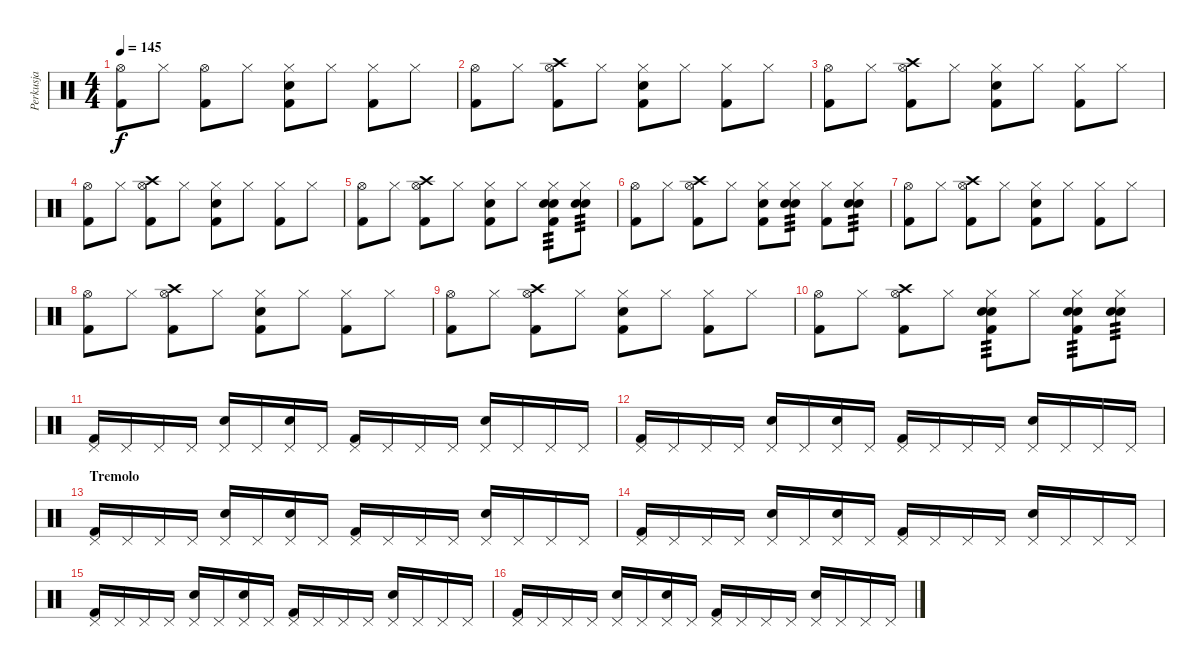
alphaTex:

\track ("Perkusja" "Perkusja") {instrument percussion}
\staff {score}
\articulation defaults
\ts (4 4)
\tempo 145
\clef neutral
\ks c
("Hi-Hat (open)" "Kick (hit) 2").8{dy f} "Hi-Hat (closed)".8 ("Hi-Hat (open)" "Kick (hit) 2").8 "Hi-Hat (closed)".8 ("Hi-Hat (closed)" "Electric Snare (hit)" "Kick (hit) 2").8 "Hi-Hat (closed)".8 ("Hi-Hat (closed)" "Kick (hit) 2").8 "Hi-Hat (closed)".8 |
("Hi-Hat (open)" "Kick (hit) 2").8 "Hi-Hat (closed)".8 ("Hi-Hat (open)" "Crash high (hit)" "Kick (hit) 2").8 "Hi-Hat (closed)".8 ("Hi-Hat (closed)" "Electric Snare (hit)" "Kick (hit) 2").8 "Hi-Hat (closed)".8 ("Hi-Hat (closed)" "Kick (hit) 2").8 "Hi-Hat (closed)".8 |
("Hi-Hat (open)" "Kick (hit) 2").8 "Hi-Hat (closed)".8 ("Hi-Hat (open)" "Crash high (hit)" "Kick (hit) 2").8 "Hi-Hat (closed)".8 ("Hi-Hat (closed)" "Electric Snare (hit)" "Kick (hit) 2").8 "Hi-Hat (closed)".8 ("Hi-Hat (closed)" "Kick (hit) 2").8 "Hi-Hat (closed)".8 |
("Hi-Hat (open)" "Kick (hit) 2").8 "Hi-Hat (closed)".8 ("Hi-Hat (open)" "Crash high (hit)" "Kick (hit) 2").8 "Hi-Hat (closed)".8 ("Hi-Hat (closed)" "Electric Snare (hit)" "Kick (hit) 2").8 "Hi-Hat (closed)".8 ("Hi-Hat (closed)" "Kick (hit) 2").8 "Hi-Hat (closed)".8 |
("Hi-Hat (open)" "Kick (hit) 2").8 "Hi-Hat (closed)".8 ("Hi-Hat (open)" "Crash high (hit)" "Kick (hit) 2").8 "Hi-Hat (closed)".8 ("Hi-Hat (closed)" "Electric Snare (hit)" "Kick (hit) 2").8 "Hi-Hat (closed)".8 ("Hi-Hat (closed)" "Electric Snare (hit)" "Electric Snare (hit)" "Kick (hit) 2").8{tp 3} ("Hi-Hat (closed)" "Electric Snare (hit)" "Electric Snare (hit)").8{tp 3} |
("Hi-Hat (open)" "Kick (hit) 2").8 "Hi-Hat (closed)".8 ("Hi-Hat (open)" "Crash high (hit)" "Kick (hit) 2").8 "Hi-Hat (closed)".8 ("Hi-Hat (closed)" "Electric Snare (hit)" "Kick (hit) 2").8 ("Hi-Hat (closed)" "Electric Snare (hit)" "Electric Snare (hit)").8{tp 3} ("Hi-Hat (closed)" "Kick (hit) 2").8 ("Hi-Hat (closed)" "Electric Snare (hit)" "Electric Snare (hit)").8{tp 3} |
("Hi-Hat (open)" "Kick (hit) 2").8 "Hi-Hat (closed)".8 ("Hi-Hat (open)" "Crash high (hit)" "Kick (hit) 2").8 "Hi-Hat (closed)".8 ("Hi-Hat (closed)" "Electric Snare (hit)" "Kick (hit) 2").8 "Hi-Hat (closed)".8 ("Hi-Hat (closed)" "Kick (hit) 2").8 "Hi-Hat (closed)".8 |
("Hi-Hat (open)" "Kick (hit) 2").8 "Hi-Hat (closed)".8 ("Hi-Hat (open)" "Crash high (hit)" "Kick (hit) 2").8 "Hi-Hat (closed)".8 ("Hi-Hat (closed)" "Electric Snare (hit)" "Kick (hit) 2").8 "Hi-Hat (closed)".8 ("Hi-Hat (closed)" "Kick (hit) 2").8 "Hi-Hat (closed)".8 |
("Hi-Hat (open)" "Kick (hit) 2").8 "Hi-Hat (closed)".8 ("Hi-Hat (open)" "Crash high (hit)" "Kick (hit) 2").8 "Hi-Hat (closed)".8 ("Hi-Hat (closed)" "Electric Snare (hit)" "Kick (hit) 2").8 "Hi-Hat (closed)".8 ("Hi-Hat (closed)" "Kick (hit) 2").8 "Hi-Hat (closed)".8 |
("Hi-Hat (open)" "Kick (hit) 2").8 "Hi-Hat (closed)".8 ("Hi-Hat (open)" "Crash high (hit)" "Kick (hit) 2").8 "Hi-Hat (closed)".8 ("Hi-Hat (closed)" "Electric Snare (hit)" "Electric Snare (hit)" "Kick (hit) 2").8{tp 3} "Hi-Hat (closed)".8 ("Hi-Hat (closed)" "Electric Snare (hit)" "Electric Snare (hit)" "Kick (hit) 2").8{tp 3} ("Hi-Hat (closed)" "Electric Snare (hit)" "Electric Snare (hit)").8{tp 3} |
("Pedal Hi-Hat (hit)" "Kick (hit) 2").16 "Pedal Hi-Hat (hit)".16 "Pedal Hi-Hat (hit)".16 "Pedal Hi-Hat (hit)".16 ("Pedal Hi-Hat (hit)" "Electric Snare (hit)").16 "Pedal Hi-Hat (hit)".16 ("Pedal Hi-Hat (hit)" "Electric Snare (hit)").16 "Pedal Hi-Hat (hit)".16 ("Pedal Hi-Hat (hit)" "Kick (hit) 2").16 "Pedal Hi-Hat (hit)".16 "Pedal Hi-Hat (hit)".16 "Pedal Hi-Hat (hit)".16 ("Pedal Hi-Hat (hit)" "Electric Snare (hit)").16 "Pedal Hi-Hat (hit)".16 "Pedal Hi-Hat (hit)".16 "Pedal Hi-Hat (hit)".16 |
("Pedal Hi-Hat (hit)" "Kick (hit) 2").16 "Pedal Hi-Hat (hit)".16 "Pedal Hi-Hat (hit)".16 "Pedal Hi-Hat (hit)".16 ("Pedal Hi-Hat (hit)" "Electric Snare (hit)").16 "Pedal Hi-Hat (hit)".16 ("Pedal Hi-Hat (hit)" "Electric Snare (hit)").16 "Pedal Hi-Hat (hit)".16 ("Pedal Hi-Hat (hit)" "Kick (hit) 2").16 "Pedal Hi-Hat (hit)".16 "Pedal Hi-Hat (hit)".16 "Pedal Hi-Hat (hit)".16 ("Pedal Hi-Hat (hit)" "Electric Snare (hit)").16 "Pedal Hi-Hat (hit)".16 "Pedal Hi-Hat (hit)".16 "Pedal Hi-Hat (hit)".16 |
\section ("" "Tremolo")
("Pedal Hi-Hat (hit)" "Kick (hit) 2").16 "Pedal Hi-Hat (hit)".16 "Pedal Hi-Hat (hit)".16 "Pedal Hi-Hat (hit)".16 ("Pedal Hi-Hat (hit)" "Electric Snare (hit)").16 "Pedal Hi-Hat (hit)".16 ("Pedal Hi-Hat (hit)" "Electric Snare (hit)").16 "Pedal Hi-Hat (hit)".16 ("Pedal Hi-Hat (hit)" "Kick (hit) 2").16 "Pedal Hi-Hat (hit)".16 "Pedal Hi-Hat (hit)".16 "Pedal Hi-Hat (hit)".16 ("Pedal Hi-Hat (hit)" "Electric Snare (hit)").16 "Pedal Hi-Hat (hit)".16 "Pedal Hi-Hat (hit)".16 "Pedal Hi-Hat (hit)".16 |
("Pedal Hi-Hat (hit)" "Kick (hit) 2").16 "Pedal Hi-Hat (hit)".16 "Pedal Hi-Hat (hit)".16 "Pedal Hi-Hat (hit)".16 ("Pedal Hi-Hat (hit)" "Electric Snare (hit)").16 "Pedal Hi-Hat (hit)".16 ("Pedal Hi-Hat (hit)" "Electric Snare (hit)").16 "Pedal Hi-Hat (hit)".16 ("Pedal Hi-Hat (hit)" "Kick (hit) 2").16 "Pedal Hi-Hat (hit)".16 "Pedal Hi-Hat (hit)".16 "Pedal Hi-Hat (hit)".16 ("Pedal Hi-Hat (hit)" "Electric Snare (hit)").16 "Pedal Hi-Hat (hit)".16 "Pedal Hi-Hat (hit)".16 "Pedal Hi-Hat (hit)".16 |
("Pedal Hi-Hat (hit)" "Kick (hit) 2").16 "Pedal Hi-Hat (hit)".16 "Pedal Hi-Hat (hit)".16 "Pedal Hi-Hat (hit)".16 ("Pedal Hi-Hat (hit)" "Electric Snare (hit)").16 "Pedal Hi-Hat (hit)".16 ("Pedal Hi-Hat (hit)" "Electric Snare (hit)").16 "Pedal Hi-Hat (hit)".16 ("Pedal Hi-Hat (hit)" "Kick (hit) 2").16 "Pedal Hi-Hat (hit)".16 "Pedal Hi-Hat (hit)".16 "Pedal Hi-Hat (hit)".16 ("Pedal Hi-Hat (hit)" "Electric Snare (hit)").16 "Pedal Hi-Hat (hit)".16 "Pedal Hi-Hat (hit)".16 "Pedal Hi-Hat (hit)".16 |
("Pedal Hi-Hat (hit)" "Kick (hit) 2").16 "Pedal Hi-Hat (hit)".16 "Pedal Hi-Hat (hit)".16 "Pedal Hi-Hat (hit)".16 ("Pedal Hi-Hat (hit)" "Electric Snare (hit)").16 "Pedal Hi-Hat (hit)".16 ("Pedal Hi-Hat (hit)" "Electric Snare (hit)").16 "Pedal Hi-Hat (hit)".16 ("Pedal Hi-Hat (hit)" "Kick (hit) 2").16 "Pedal Hi-Hat (hit)".16 "Pedal Hi-Hat (hit)".16 "Pedal Hi-Hat (hit)".16 ("Pedal Hi-Hat (hit)" "Electric Snare (hit)").16 "Pedal Hi-Hat (hit)".16 "Pedal Hi-Hat (hit)".16 "Pedal Hi-Hat (hit)".16
